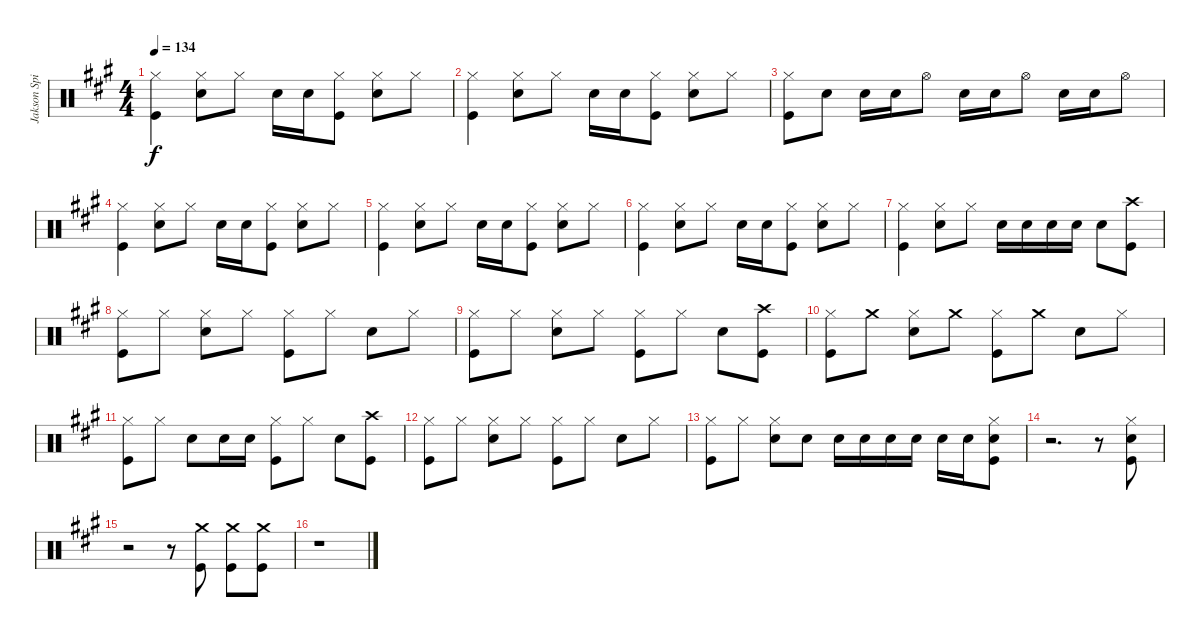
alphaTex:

\track ("Jakson Spires Drums" "Jakson Spi") {instrument percussion}
\staff {score}
\articulation defaults
\ts (4 4)
\tempo 134
\clef neutral
\ks a
("Hi-Hat (closed)" "Kick (hit)").4{dy f} ("Hi-Hat (closed)" "Snare (hit) 2").8 "Hi-Hat (closed)".8 "Snare (hit) 2".16 "Snare (hit) 2".16 ("Hi-Hat (closed)" "Kick (hit)").8 ("Hi-Hat (closed)" "Snare (hit) 2").8 "Hi-Hat (closed)".8 |
("Hi-Hat (closed)" "Kick (hit)").4 ("Hi-Hat (closed)" "Snare (hit) 2").8 "Hi-Hat (closed)".8 "Snare (hit) 2".16 "Snare (hit) 2".16 ("Hi-Hat (closed)" "Kick (hit)").8 ("Hi-Hat (closed)" "Snare (hit) 2").8 "Hi-Hat (closed)".8 |
("Hi-Hat (closed)" "Kick (hit)").8 "Snare (hit) 2".8 "Snare (hit) 2".16 "Snare (hit) 2".16 "Hi-Hat (open)".8 "Snare (hit) 2".16 "Snare (hit) 2".16 "Hi-Hat (open)".8 "Snare (hit) 2".16 "Snare (hit) 2".16 "Hi-Hat (open)".8 |
("Hi-Hat (closed)" "Kick (hit)").4 ("Hi-Hat (closed)" "Snare (hit) 2").8 "Hi-Hat (closed)".8 "Snare (hit) 2".16 "Snare (hit) 2".16 ("Hi-Hat (closed)" "Kick (hit)").8 ("Hi-Hat (closed)" "Snare (hit) 2").8 "Hi-Hat (closed)".8 |
("Hi-Hat (closed)" "Kick (hit)").4 ("Hi-Hat (closed)" "Snare (hit) 2").8 "Hi-Hat (closed)".8 "Snare (hit) 2".16 "Snare (hit) 2".16 ("Hi-Hat (closed)" "Kick (hit)").8 ("Hi-Hat (closed)" "Snare (hit) 2").8 "Hi-Hat (closed)".8 |
("Hi-Hat (closed)" "Kick (hit)").4 ("Hi-Hat (closed)" "Snare (hit) 2").8 "Hi-Hat (closed)".8 "Snare (hit) 2".16 "Snare (hit) 2".16 ("Hi-Hat (closed)" "Kick (hit)").8 ("Hi-Hat (closed)" "Snare (hit) 2").8 "Hi-Hat (closed)".8 |
("Hi-Hat (closed)" "Kick (hit)").4 ("Hi-Hat (closed)" "Snare (hit) 2").8 "Hi-Hat (closed)".8 "Snare (hit) 2".16 "Snare (hit) 2".16 "Snare (hit) 2".16 "Snare (hit) 2".16 "Snare (hit) 2".8 ("Crash high (hit)" "Kick (hit)").8 |
("Hi-Hat (closed)" "Kick (hit)").8 "Hi-Hat (closed)".8 ("Hi-Hat (closed)" "Snare (hit) 2").8 "Hi-Hat (closed)".8 ("Hi-Hat (closed)" "Kick (hit)").8 "Hi-Hat (closed)".8 "Snare (hit) 2".8 "Hi-Hat (closed)".8 |
("Hi-Hat (closed)" "Kick (hit)").8 "Hi-Hat (closed)".8 ("Hi-Hat (closed)" "Snare (hit) 2").8 "Hi-Hat (closed)".8 ("Hi-Hat (closed)" "Kick (hit)").8 "Hi-Hat (closed)".8 "Snare (hit) 2".8 ("Crash high (hit)" "Kick (hit)").8 |
("Hi-Hat (closed)" "Kick (hit)").8 "Crash medium (hit)".8 ("Hi-Hat (closed)" "Snare (hit) 2").8 "Crash medium (hit)".8 ("Hi-Hat (closed)" "Kick (hit)").8 "Crash medium (hit)".8 "Snare (hit) 2".8 "Hi-Hat (closed)".8 |
("Hi-Hat (closed)" "Kick (hit)").8 "Hi-Hat (closed)".8 "Snare (hit) 2".8 "Snare (hit) 2".16 "Snare (hit) 2".16 ("Hi-Hat (closed)" "Kick (hit)").8 "Hi-Hat (closed)".8 "Snare (hit) 2".8 ("Crash high (hit)" "Kick (hit)").8 |
("Hi-Hat (closed)" "Kick (hit)").8 "Hi-Hat (closed)".8 ("Hi-Hat (closed)" "Snare (hit) 2").8 "Hi-Hat (closed)".8 ("Hi-Hat (closed)" "Kick (hit)").8 "Hi-Hat (closed)".8 "Snare (hit) 2".8 "Hi-Hat (closed)".8 |
("Hi-Hat (closed)" "Kick (hit)").8 "Hi-Hat (closed)".8 ("Hi-Hat (closed)" "Snare (hit) 2").8 "Snare (hit) 2".8 "Snare (hit) 2".16 "Snare (hit) 2".16 "Snare (hit) 2".16 "Snare (hit) 2".16 "Snare (hit) 2".16 "Snare (hit) 2".16 ("Hi-Hat (closed)" "Snare (hit) 2" "Kick (hit)").8 |
r.2{d} r.8 ("Hi-Hat (closed)" "Snare (hit) 2" "Kick (hit)").8 |
r.2 r.8 ("Crash medium (hit)" "Kick (hit)").8 ("Crash medium (hit)" "Kick (hit)").8 ("Crash medium (hit)" "Kick (hit)").8 |
r.1
